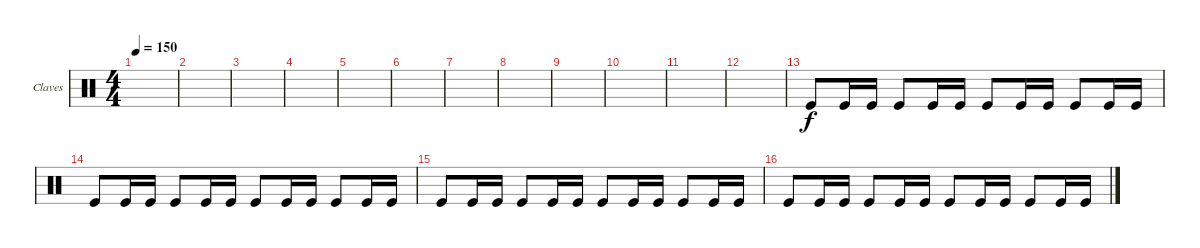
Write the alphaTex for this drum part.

\defaultSystemsLayout 4
\bracketExtendMode groupsimilarinstruments
\firstSystemTrackNameOrientation horizontal
\otherSystemsTrackNameOrientation horizontal
\track ("Claves" "Claves") {instrument percussion}
\staff {score}
\articulation defaults
\ts (4 4)
\tempo 150
\clef neutral
\scale
0.333333
\ks c
|
\scale
0.333333 |
\scale
0.333333 |
\scale
0.333333 |
\scale
0.333333 |
\scale
0.333333 |
\scale
0.333333 |
\scale
0.333333 |
\scale
0.333333 |
\scale
0.333333 |
\scale
0.333333 |
\scale
0.333333 |
\scale
0.333333 "Kick (hit)".8 "Kick (hit)".16 "Kick (hit)".16 "Kick (hit)".8 "Kick (hit)".16 "Kick (hit)".16 "Kick (hit)".8 "Kick (hit)".16 "Kick (hit)".16 "Kick (hit)".8 "Kick (hit)".16 "Kick (hit)".16 |
\scale
0.333333 "Kick (hit)".8 "Kick (hit)".16 "Kick (hit)".16 "Kick (hit)".8 "Kick (hit)".16 "Kick (hit)".16 "Kick (hit)".8 "Kick (hit)".16 "Kick (hit)".16 "Kick (hit)".8 "Kick (hit)".16 "Kick (hit)".16 |
\scale
0.333333 "Kick (hit)".8 "Kick (hit)".16 "Kick (hit)".16 "Kick (hit)".8 "Kick (hit)".16 "Kick (hit)".16 "Kick (hit)".8 "Kick (hit)".16 "Kick (hit)".16 "Kick (hit)".8 "Kick (hit)".16 "Kick (hit)".16 |
\scale
0.333333 "Kick (hit)".8 "Kick (hit)".16 "Kick (hit)".16 "Kick (hit)".8 "Kick (hit)".16 "Kick (hit)".16 "Kick (hit)".8 "Kick (hit)".16 "Kick (hit)".16 "Kick (hit)".8 "Kick (hit)".16 "Kick (hit)".16
